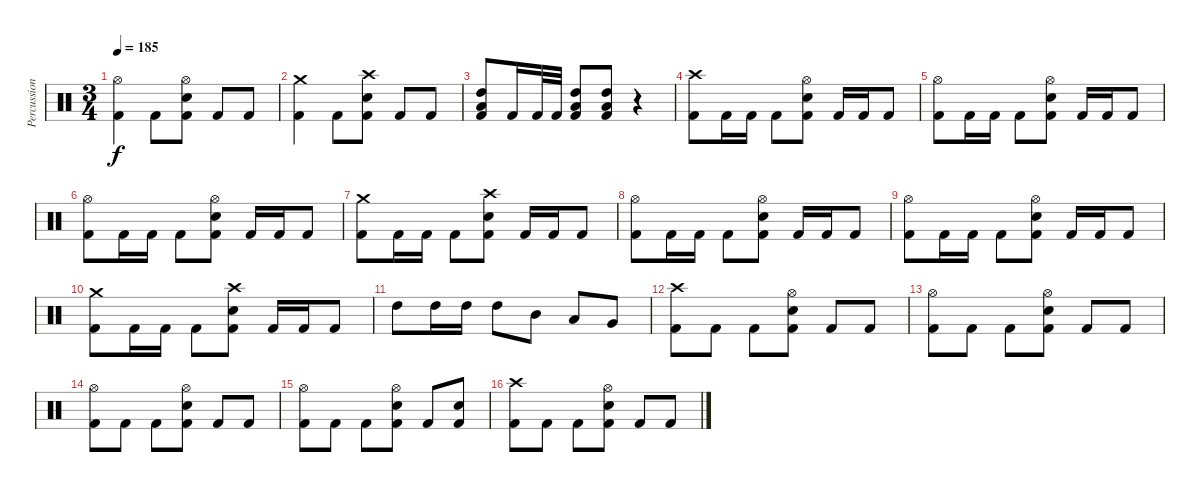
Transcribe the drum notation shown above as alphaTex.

\track ("Percussion" "Percussion") {instrument percussion}
\staff {score}
\articulation defaults
\ts (3 4)
\tempo 185
\clef neutral
\ks c
("Hi-Hat (open)" "Kick (hit) 2").4{dy f} "Kick (hit) 2".8 ("Hi-Hat (open)" "Snare (hit) 2" "Kick (hit) 2").8 "Kick (hit) 2".8 "Kick (hit) 2".8 |
("Crash medium (hit)" "Kick (hit) 2").4 "Kick (hit) 2".8 ("Crash high (hit)" "Snare (hit) 2" "Kick (hit) 2").8 "Kick (hit) 2".8 "Kick (hit) 2".8 |
("Low Tom (hit)" "High Tom (hit)" "Kick (hit) 2").8 "Kick (hit) 2".16 "Kick (hit) 2".32 "Kick (hit) 2".32 ("Low Tom (hit)" "High Tom (hit)" "Kick (hit) 2").8 ("Low Tom (hit)" "High Tom (hit)" "Kick (hit) 2").8 r.4 |
("Crash high (hit)" "Kick (hit) 2").8 "Kick (hit) 2".16 "Kick (hit) 2".16 "Kick (hit) 2".8 ("Hi-Hat (open)" "Snare (hit) 2" "Kick (hit) 2").8 "Kick (hit) 2".16 "Kick (hit) 2".16 "Kick (hit) 2".8 |
("Hi-Hat (open)" "Kick (hit) 2").8 "Kick (hit) 2".16 "Kick (hit) 2".16 "Kick (hit) 2".8 ("Hi-Hat (open)" "Snare (hit) 2" "Kick (hit) 2").8 "Kick (hit) 2".16 "Kick (hit) 2".16 "Kick (hit) 2".8 |
("Hi-Hat (open)" "Kick (hit) 2").8 "Kick (hit) 2".16 "Kick (hit) 2".16 "Kick (hit) 2".8 ("Hi-Hat (open)" "Snare (hit) 2" "Kick (hit) 2").8 "Kick (hit) 2".16 "Kick (hit) 2".16 "Kick (hit) 2".8 |
("Crash medium (hit)" "Kick (hit) 2").8 "Kick (hit) 2".16 "Kick (hit) 2".16 "Kick (hit) 2".8 ("Crash high (hit)" "Snare (hit) 2" "Kick (hit) 2").8 "Kick (hit) 2".16 "Kick (hit) 2".16 "Kick (hit) 2".8 |
("Hi-Hat (open)" "Kick (hit) 2").8 "Kick (hit) 2".16 "Kick (hit) 2".16 "Kick (hit) 2".8 ("Hi-Hat (open)" "Snare (hit) 2" "Kick (hit) 2").8 "Kick (hit) 2".16 "Kick (hit) 2".16 "Kick (hit) 2".8 |
("Hi-Hat (open)" "Kick (hit) 2").8 "Kick (hit) 2".16 "Kick (hit) 2".16 "Kick (hit) 2".8 ("Hi-Hat (open)" "Snare (hit) 2" "Kick (hit) 2").8 "Kick (hit) 2".16 "Kick (hit) 2".16 "Kick (hit) 2".8 |
("Crash medium (hit)" "Kick (hit) 2").8 "Kick (hit) 2".16 "Kick (hit) 2".16 "Kick (hit) 2".8 ("Crash high (hit)" "Snare (hit) 2" "Kick (hit) 2").8 "Kick (hit) 2".16 "Kick (hit) 2".16 "Kick (hit) 2".8 |
"High Tom (hit)".8 "High Tom (hit)".16 "High Tom (hit)".16 "High Tom (hit)".8 "Mid Tom (hit)".8 "Low Tom (hit)".8 "Very Low Tom (hit)".8 |
("Crash high (hit)" "Kick (hit) 2").8 "Kick (hit) 2".8 "Kick (hit) 2".8 ("Hi-Hat (open)" "Snare (hit) 2" "Kick (hit) 2").8 "Kick (hit) 2".8 "Kick (hit) 2".8 |
("Hi-Hat (open)" "Kick (hit) 2").8 "Kick (hit) 2".8 "Kick (hit) 2".8 ("Hi-Hat (open)" "Snare (hit) 2" "Kick (hit) 2").8 "Kick (hit) 2".8 "Kick (hit) 2".8 |
("Hi-Hat (open)" "Kick (hit) 2").8 "Kick (hit) 2".8 "Kick (hit) 2".8 ("Hi-Hat (open)" "Snare (hit) 2" "Kick (hit) 2").8 "Kick (hit) 2".8 "Kick (hit) 2".8 |
("Hi-Hat (open)" "Kick (hit) 2").8 "Kick (hit) 2".8 "Kick (hit) 2".8 ("Hi-Hat (open)" "Snare (hit) 2" "Kick (hit) 2").8 "Kick (hit) 2".8 ("Snare (hit) 2" "Kick (hit) 2").8 |
("Crash high (hit)" "Kick (hit) 2").8 "Kick (hit) 2".8 "Kick (hit) 2".8 ("Hi-Hat (open)" "Snare (hit) 2" "Kick (hit) 2").8 "Kick (hit) 2".8 "Kick (hit) 2".8
